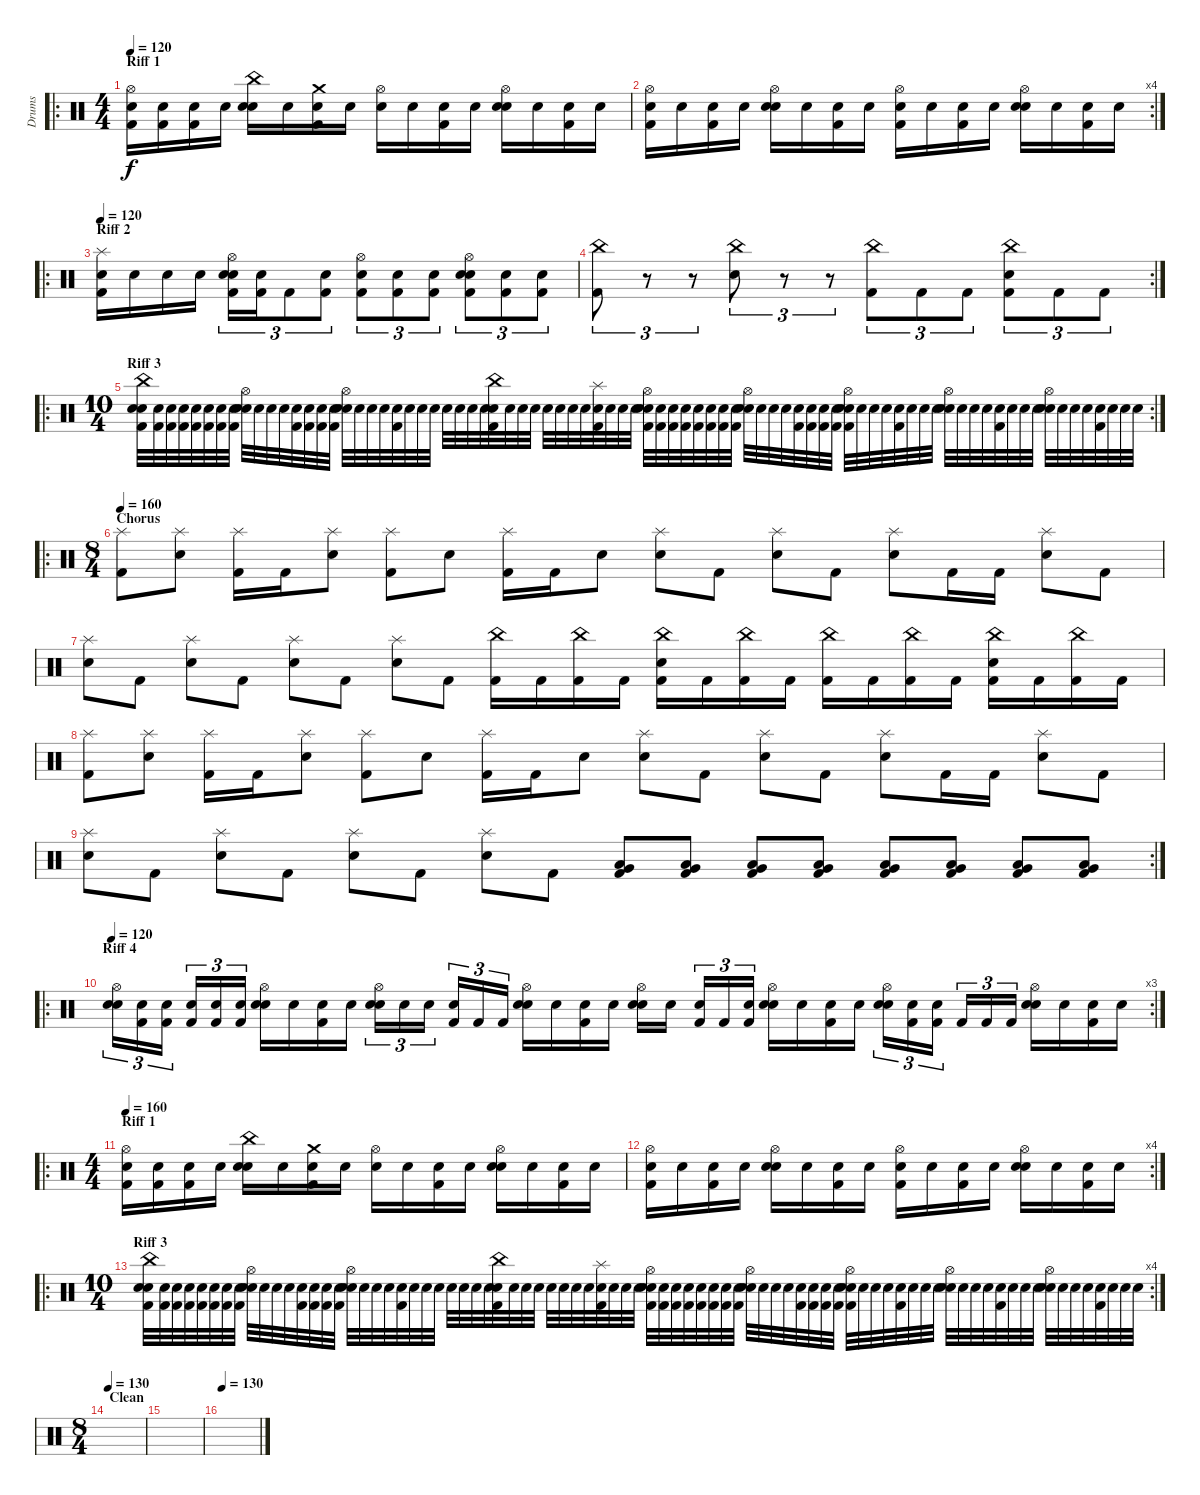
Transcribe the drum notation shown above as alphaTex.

\track ("Drums" "Drums") {instrument percussion}
\staff {score}
\articulation defaults
\ro
\ts (4 4)
\section ("" "Riff 1")
\tempo 120
\tempo 160
\tempo 120
\clef neutral
\ks c
("Snare (hit)" "Kick (hit) 2" "Hi-Hat (open)").16{dy f} ("Snare (hit)" "Kick (hit) 2").16 ("Snare (hit)" "Kick (hit) 2").16 "Snare (hit)".16 ("Snare (hit)" "Snare (hit) 2" "China (hit)").16 "Snare (hit)".16 ("Snare (hit)" "Kick (hit) 2" "Crash medium (hit)").16 "Snare (hit)".16 ("Snare (hit)" "Hi-Hat (open)").16 "Snare (hit)".16 ("Snare (hit)" "Kick (hit) 2").16 "Snare (hit)".16 ("Snare (hit)" "Snare (hit) 2" "Hi-Hat (open)").16 "Snare (hit)".16 ("Snare (hit)" "Kick (hit) 2").16 "Snare (hit)".16 |
\rc 4
("Snare (hit)" "Kick (hit) 2" "Hi-Hat (open)").16 "Snare (hit)".16 ("Snare (hit)" "Kick (hit) 2").16 "Snare (hit)".16 ("Snare (hit)" "Snare (hit) 2" "Hi-Hat (open)").16 "Snare (hit)".16 ("Snare (hit)" "Kick (hit) 2").16 "Snare (hit)".16 ("Snare (hit)" "Kick (hit) 2" "Hi-Hat (open)").16 "Snare (hit)".16 ("Snare (hit)" "Kick (hit) 2").16 "Snare (hit)".16 ("Snare (hit)" "Snare (hit) 2" "Hi-Hat (open)").16 "Snare (hit)".16 ("Snare (hit)" "Kick (hit) 2").16 "Snare (hit)".16 |
\ro
\section ("" "Riff 2")
\tempo 120
("Snare (hit)" "Kick (hit) 2" "Splash (hit)").16 "Snare (hit)".16 "Snare (hit)".16 "Snare (hit)".16 ("Snare (hit)" "Kick (hit) 2" "Snare (hit) 2" "Hi-Hat (open)").16{tu (3 2)} ("Snare (hit)" "Kick (hit) 2").16{tu (3 2)} "Kick (hit) 2".8{tu (3 2)} ("Snare (hit)" "Kick (hit) 2").8{tu (3 2)} ("Snare (hit)" "Kick (hit) 2" "Hi-Hat (open)").8{tu (3 2)} ("Snare (hit)" "Kick (hit) 2").8{tu (3 2)} ("Snare (hit)" "Kick (hit) 2").8{tu (3 2)} ("Snare (hit)" "Kick (hit) 2" "Snare (hit) 2" "Hi-Hat (open)").8{tu (3 2)} ("Snare (hit)" "Kick (hit) 2").8{tu (3 2)} ("Snare (hit)" "Kick (hit) 2").8{tu (3 2)} |
\rc 2
("Kick (hit) 2" "China (hit)").8{tu (3 2)} r.8{tu (3 2)} r.8{tu (3 2)} ("Snare (hit) 2" "China (hit)").8{tu (3 2)} r.8{tu (3 2)} r.8{tu (3 2)} ("Kick (hit) 2" "China (hit)").8{tu (3 2)} "Kick (hit) 2".8{tu (3 2)} "Kick (hit) 2".8{tu (3 2)} ("Kick (hit) 2" "Snare (hit) 2" "China (hit)").8{tu (3 2)} "Kick (hit) 2".8{tu (3 2)} "Kick (hit) 2".8{tu (3 2)} |
\ro
\rc 2
\ts (10 4)
\section ("" "Riff 3")
("Snare (hit)" "Kick (hit) 2" "Snare (hit) 2" "China (hit)").32 ("Snare (hit)" "Kick (hit) 2").32 ("Snare (hit)" "Kick (hit) 2").32 ("Snare (hit)" "Kick (hit) 2").32 ("Snare (hit)" "Kick (hit) 2").32 ("Snare (hit)" "Kick (hit) 2").32 ("Snare (hit)" "Kick (hit) 2").32 ("Snare (hit)" "Kick (hit) 2").32 ("Snare (hit)" "Snare (hit) 2" "Hi-Hat (open)").32 "Snare (hit)".32 "Snare (hit)".32 "Snare (hit)".32 ("Snare (hit)" "Kick (hit) 2").32 ("Snare (hit)" "Kick (hit) 2").32 ("Snare (hit)" "Kick (hit) 2").32 ("Snare (hit)" "Kick (hit) 2").32 ("Snare (hit)" "Snare (hit) 2" "Hi-Hat (open)").32 "Snare (hit)".32 "Snare (hit)".32 "Snare (hit)".32 ("Snare (hit)" "Kick (hit) 2").32 "Snare (hit)".32 "Snare (hit)".32 "Snare (hit)".32 "Snare (hit)".32 "Snare (hit)".32 "Snare (hit)".32 "Snare (hit)".32 ("Snare (hit)" "Kick (hit) 2" "China (hit)").32 "Snare (hit)".32 "Snare (hit)".32 "Snare (hit)".32 "Snare (hit)".32 "Snare (hit)".32 "Snare (hit)".32 "Snare (hit)".32 ("Snare (hit)" "Kick (hit) 2" "Splash (hit)").32 "Snare (hit)".32 "Snare (hit)".32 "Snare (hit)".32 ("Snare (hit)" "Kick (hit) 2" "Snare (hit) 2" "Hi-Hat (open)").32 ("Snare (hit)" "Kick (hit) 2").32 ("Snare (hit)" "Kick (hit) 2").32 ("Snare (hit)" "Kick (hit) 2").32 ("Snare (hit)" "Kick (hit) 2").32 ("Snare (hit)" "Kick (hit) 2").32 ("Snare (hit)" "Kick (hit) 2").32 ("Snare (hit)" "Kick (hit) 2").32 ("Snare (hit)" "Snare (hit) 2" "Hi-Hat (open)").32 "Snare (hit)".32 "Snare (hit)".32 "Snare (hit)".32 ("Snare (hit)" "Kick (hit) 2").32 ("Snare (hit)" "Kick (hit) 2").32 ("Snare (hit)" "Kick (hit) 2").32 ("Snare (hit)" "Kick (hit) 2").32 ("Snare (hit)" "Kick (hit) 2" "Snare (hit) 2" "Hi-Hat (open)").32 "Snare (hit)".32 "Snare (hit)".32 "Snare (hit)".32 ("Snare (hit)" "Kick (hit) 2").32 "Snare (hit)".32 "Snare (hit)".32 "Snare (hit)".32 ("Snare (hit)" "Snare (hit) 2" "Hi-Hat (open)").32 "Snare (hit)".32 "Snare (hit)".32 "Snare (hit)".32 ("Snare (hit)" "Kick (hit) 2").32 "Snare (hit)".32 "Snare (hit)".32 "Snare (hit)".32 ("Snare (hit)" "Snare (hit) 2" "Hi-Hat (open)").32 "Snare (hit)".32 "Snare (hit)".32 "Snare (hit)".32 ("Snare (hit)" "Kick (hit) 2").32 "Snare (hit)".32 "Snare (hit)".32 "Snare (hit)".32 |
\ro
\ts (8 4)
\section ("" "Chorus")
\tempo 160
("Kick (hit) 2" "Splash (hit)").8 ("Snare (hit) 2" "Splash (hit)").8 ("Kick (hit) 2" "Splash (hit)").16 "Kick (hit) 2".16 ("Snare (hit) 2" "Splash (hit)").8 ("Kick (hit) 2" "Splash (hit)").8 "Snare (hit) 2".8 ("Kick (hit) 2" "Splash (hit)").16 "Kick (hit) 2".16 "Snare (hit) 2".8 ("Snare (hit) 2" "Splash (hit)").8 "Kick (hit) 2".8 ("Snare (hit) 2" "Splash (hit)").8 "Kick (hit) 2".8 ("Snare (hit) 2" "Splash (hit)").8 "Kick (hit) 2".16 "Kick (hit) 2".16 ("Snare (hit) 2" "Splash (hit)").8 "Kick (hit) 2".8 |
("Snare (hit) 2" "Splash (hit)").8 "Kick (hit) 2".8 ("Snare (hit) 2" "Splash (hit)").8 "Kick (hit) 2".8 ("Snare (hit) 2" "Splash (hit)").8 "Kick (hit) 2".8 ("Snare (hit) 2" "Splash (hit)").8 "Kick (hit) 2".8 ("Kick (hit) 2" "China (hit)").16 "Kick (hit) 2".16 ("Kick (hit) 2" "China (hit)").16 "Kick (hit) 2".16 ("Kick (hit) 2" "Snare (hit) 2" "China (hit)").16 "Kick (hit) 2".16 ("Kick (hit) 2" "China (hit)").16 "Kick (hit) 2".16 ("Kick (hit) 2" "China (hit)").16 "Kick (hit) 2".16 ("Kick (hit) 2" "China (hit)").16 "Kick (hit) 2".16 ("Kick (hit) 2" "Snare (hit) 2" "China (hit)").16 "Kick (hit) 2".16 ("Kick (hit) 2" "China (hit)").16 "Kick (hit) 2".16 |
("Kick (hit) 2" "Splash (hit)").8 ("Snare (hit) 2" "Splash (hit)").8 ("Kick (hit) 2" "Splash (hit)").16 "Kick (hit) 2".16 ("Snare (hit) 2" "Splash (hit)").8 ("Kick (hit) 2" "Splash (hit)").8 "Snare (hit) 2".8 ("Kick (hit) 2" "Splash (hit)").16 "Kick (hit) 2".16 "Snare (hit) 2".8 ("Snare (hit) 2" "Splash (hit)").8 "Kick (hit) 2".8 ("Snare (hit) 2" "Splash (hit)").8 "Kick (hit) 2".8 ("Snare (hit) 2" "Splash (hit)").8 "Kick (hit) 2".16 "Kick (hit) 2".16 ("Snare (hit) 2" "Splash (hit)").8 "Kick (hit) 2".8 |
\rc 2
("Snare (hit) 2" "Splash (hit)").8 "Kick (hit) 2".8 ("Snare (hit) 2" "Splash (hit)").8 "Kick (hit) 2".8 ("Snare (hit) 2" "Splash (hit)").8 "Kick (hit) 2".8 ("Snare (hit) 2" "Splash (hit)").8 "Kick (hit) 2".8 ("Kick (hit) 2" "Low Tom (hit)" "Very Low Tom (hit)").8 ("Kick (hit) 2" "Low Tom (hit)" "Very Low Tom (hit)").8 ("Kick (hit) 2" "Low Tom (hit)" "Very Low Tom (hit)").8 ("Kick (hit) 2" "Low Tom (hit)" "Very Low Tom (hit)").8 ("Kick (hit) 2" "Low Tom (hit)" "Very Low Tom (hit)").8 ("Kick (hit) 2" "Low Tom (hit)" "Very Low Tom (hit)").8 ("Kick (hit) 2" "Low Tom (hit)" "Very Low Tom (hit)").8 ("Kick (hit) 2" "Low Tom (hit)" "Very Low Tom (hit)").8 |
\ro
\rc 3
\section ("" "Riff 4")
\tempo 120
("Snare (hit)" "Snare (hit) 2" "Hi-Hat (open)").16{tu (3 2)} ("Snare (hit)" "Kick (hit) 2").16{tu (3 2)} ("Snare (hit)" "Kick (hit) 2").16{tu (3 2)} ("Snare (hit)" "Kick (hit) 2").16{tu (3 2)} ("Snare (hit)" "Kick (hit) 2").16{tu (3 2)} ("Snare (hit)" "Kick (hit) 2").16{tu (3 2)} ("Snare (hit)" "Snare (hit) 2" "Hi-Hat (open)").16 "Snare (hit)".16 ("Snare (hit)" "Kick (hit) 2").16 "Snare (hit)".16 ("Snare (hit)" "Snare (hit) 2" "Hi-Hat (open)").16{tu (3 2)} "Snare (hit)".16{tu (3 2)} "Snare (hit)".16{tu (3 2)} ("Snare (hit)" "Kick (hit) 2").16{tu (3 2)} "Kick (hit) 2".16{tu (3 2)} "Kick (hit) 2".16{tu (3 2)} ("Snare (hit)" "Snare (hit) 2" "Hi-Hat (open)").16 "Snare (hit)".16 ("Snare (hit)" "Kick (hit) 2").16 "Snare (hit)".16 ("Snare (hit)" "Snare (hit) 2" "Hi-Hat (open)").16 "Snare (hit)".16 ("Snare (hit)" "Kick (hit) 2").16{tu (3 2)} "Kick (hit) 2".16{tu (3 2)} ("Snare (hit)" "Kick (hit) 2").16{tu (3 2)} ("Snare (hit)" "Snare (hit) 2" "Hi-Hat (open)").16 "Snare (hit)".16 ("Snare (hit)" "Kick (hit) 2").16 "Snare (hit)".16 ("Snare (hit)" "Snare (hit) 2" "Hi-Hat (open)").16{tu (3 2)} ("Snare (hit)" "Kick (hit) 2").16{tu (3 2)} ("Snare (hit)" "Kick (hit) 2").16{tu (3 2)} "Kick (hit) 2".16{tu (3 2)} "Kick (hit) 2".16{tu (3 2)} "Kick (hit) 2".16{tu (3 2)} ("Snare (hit)" "Snare (hit) 2" "Hi-Hat (open)").16 "Snare (hit)".16 ("Snare (hit)" "Kick (hit) 2").16 "Snare (hit)".16 |
\ro
\ts (4 4)
\section ("" "Riff 1")
\tempo 160
("Snare (hit)" "Kick (hit) 2" "Hi-Hat (open)").16 ("Snare (hit)" "Kick (hit) 2").16 ("Snare (hit)" "Kick (hit) 2").16 "Snare (hit)".16 ("Snare (hit)" "Snare (hit) 2" "China (hit)").16 "Snare (hit)".16 ("Snare (hit)" "Kick (hit) 2" "Crash medium (hit)").16 "Snare (hit)".16 ("Snare (hit)" "Hi-Hat (open)").16 "Snare (hit)".16 ("Snare (hit)" "Kick (hit) 2").16 "Snare (hit)".16 ("Snare (hit)" "Snare (hit) 2" "Hi-Hat (open)").16 "Snare (hit)".16 ("Snare (hit)" "Kick (hit) 2").16 "Snare (hit)".16 |
\rc 4
("Snare (hit)" "Kick (hit) 2" "Hi-Hat (open)").16 "Snare (hit)".16 ("Snare (hit)" "Kick (hit) 2").16 "Snare (hit)".16 ("Snare (hit)" "Snare (hit) 2" "Hi-Hat (open)").16 "Snare (hit)".16 ("Snare (hit)" "Kick (hit) 2").16 "Snare (hit)".16 ("Snare (hit)" "Kick (hit) 2" "Hi-Hat (open)").16 "Snare (hit)".16 ("Snare (hit)" "Kick (hit) 2").16 "Snare (hit)".16 ("Snare (hit)" "Snare (hit) 2" "Hi-Hat (open)").16 "Snare (hit)".16 ("Snare (hit)" "Kick (hit) 2").16 "Snare (hit)".16 |
\ro
\rc 4
\ts (10 4)
\section ("" "Riff 3")
("Snare (hit)" "Kick (hit) 2" "Snare (hit) 2" "China (hit)").32 ("Snare (hit)" "Kick (hit) 2").32 ("Snare (hit)" "Kick (hit) 2").32 ("Snare (hit)" "Kick (hit) 2").32 ("Snare (hit)" "Kick (hit) 2").32 ("Snare (hit)" "Kick (hit) 2").32 ("Snare (hit)" "Kick (hit) 2").32 ("Snare (hit)" "Kick (hit) 2").32 ("Snare (hit)" "Snare (hit) 2" "Hi-Hat (open)").32 "Snare (hit)".32 "Snare (hit)".32 "Snare (hit)".32 ("Snare (hit)" "Kick (hit) 2").32 ("Snare (hit)" "Kick (hit) 2").32 ("Snare (hit)" "Kick (hit) 2").32 ("Snare (hit)" "Kick (hit) 2").32 ("Snare (hit)" "Snare (hit) 2" "Hi-Hat (open)").32 "Snare (hit)".32 "Snare (hit)".32 "Snare (hit)".32 ("Snare (hit)" "Kick (hit) 2").32 "Snare (hit)".32 "Snare (hit)".32 "Snare (hit)".32 "Snare (hit)".32 "Snare (hit)".32 "Snare (hit)".32 "Snare (hit)".32 ("Snare (hit)" "Kick (hit) 2" "China (hit)").32 "Snare (hit)".32 "Snare (hit)".32 "Snare (hit)".32 "Snare (hit)".32 "Snare (hit)".32 "Snare (hit)".32 "Snare (hit)".32 ("Snare (hit)" "Kick (hit) 2" "Splash (hit)").32 "Snare (hit)".32 "Snare (hit)".32 "Snare (hit)".32 ("Snare (hit)" "Kick (hit) 2" "Snare (hit) 2" "Hi-Hat (open)").32 ("Snare (hit)" "Kick (hit) 2").32 ("Snare (hit)" "Kick (hit) 2").32 ("Snare (hit)" "Kick (hit) 2").32 ("Snare (hit)" "Kick (hit) 2").32 ("Snare (hit)" "Kick (hit) 2").32 ("Snare (hit)" "Kick (hit) 2").32 ("Snare (hit)" "Kick (hit) 2").32 ("Snare (hit)" "Snare (hit) 2" "Hi-Hat (open)").32 "Snare (hit)".32 "Snare (hit)".32 "Snare (hit)".32 ("Snare (hit)" "Kick (hit) 2").32 ("Snare (hit)" "Kick (hit) 2").32 ("Snare (hit)" "Kick (hit) 2").32 ("Snare (hit)" "Kick (hit) 2").32 ("Snare (hit)" "Kick (hit) 2" "Snare (hit) 2" "Hi-Hat (open)").32 "Snare (hit)".32 "Snare (hit)".32 "Snare (hit)".32 ("Snare (hit)" "Kick (hit) 2").32 "Snare (hit)".32 "Snare (hit)".32 "Snare (hit)".32 ("Snare (hit)" "Snare (hit) 2" "Hi-Hat (open)").32 "Snare (hit)".32 "Snare (hit)".32 "Snare (hit)".32 ("Snare (hit)" "Kick (hit) 2").32 "Snare (hit)".32 "Snare (hit)".32 "Snare (hit)".32 ("Snare (hit)" "Snare (hit) 2" "Hi-Hat (open)").32 "Snare (hit)".32 "Snare (hit)".32 "Snare (hit)".32 ("Snare (hit)" "Kick (hit) 2").32 "Snare (hit)".32 "Snare (hit)".32 "Snare (hit)".32 |
\ts (8 4)
\section ("" "Clean")
\tempo 130
|
|
\tempo 130
